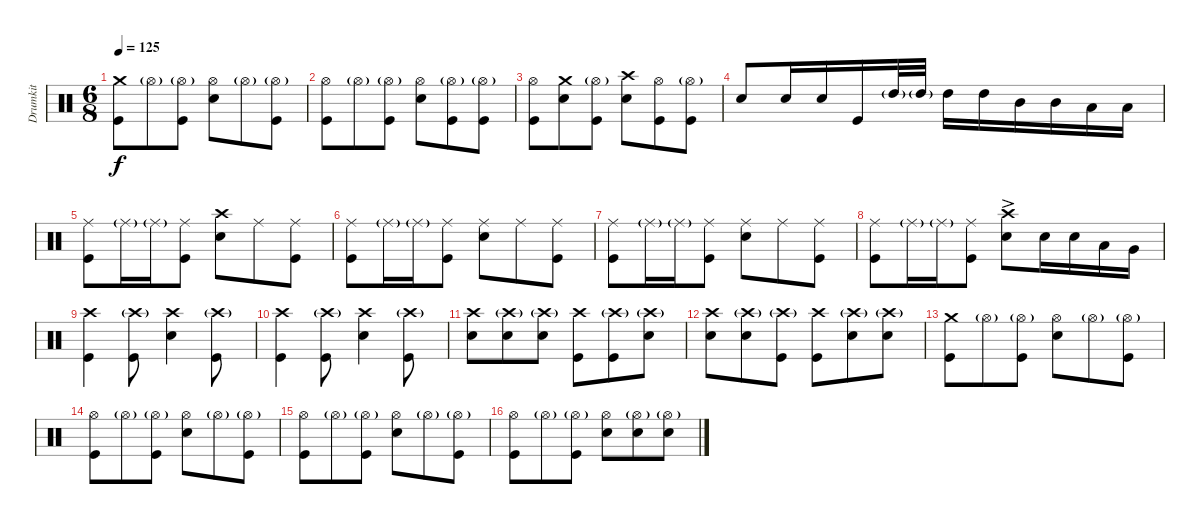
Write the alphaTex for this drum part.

\track ("Drumkit" "Drumkit") {instrument percussion}
\staff {score}
\articulation defaults
\ts (6 8)
\tempo 125
\clef neutral
\ks c
("Kick (hit)" "Crash medium (hit)").8{dy f} "Hi-Hat (open)"{g}.8 ("Kick (hit)" "Hi-Hat (open)"{g}).8 ("Snare (hit) 2" "Hi-Hat (open)").8 "Hi-Hat (open)"{g}.8 ("Hi-Hat (open)"{g} "Kick (hit)").8 |
("Kick (hit)" "Hi-Hat (open)").8 "Hi-Hat (open)"{g}.8 ("Kick (hit)" "Hi-Hat (open)"{g}).8 ("Snare (hit) 2" "Hi-Hat (open)").8 ("Hi-Hat (open)"{g} "Kick (hit)").8 ("Hi-Hat (open)"{g} "Kick (hit)").8 |
("Kick (hit)" "Hi-Hat (open)").8 ("Snare (hit) 2" "Crash medium (hit)").8 ("Kick (hit)" "Hi-Hat (open)"{g}).8 ("Snare (hit) 2" "Crash high (hit)").8 ("Kick (hit)" "Hi-Hat (open)").8 ("Hi-Hat (open)"{g} "Kick (hit)").8 |
"Snare (hit) 2".8 "Snare (hit) 2".16 "Snare (hit) 2".16 "Kick (hit)".16 "High Tom (hit)"{g}.32 "High Tom (hit)"{g}.32 "High Tom (hit)".16 "High Tom (hit)".16 "Mid Tom (hit)".16 "Mid Tom (hit)".16 "Low Tom (hit)".16 "Low Tom (hit)".16 |
("Kick (hit)" "Ride (middle)").8 "Ride (middle)"{g}.16 "Ride (middle)"{g}.16 ("Kick (hit)" "Ride (middle)").8 ("Snare (hit) 2" "Crash high (hit)").8 "Ride (middle)".8 ("Kick (hit)" "Ride (middle)").8 |
("Kick (hit)" "Ride (middle)").8 "Ride (middle)"{g}.16 "Ride (middle)"{g}.16 ("Kick (hit)" "Ride (middle)").8 ("Snare (hit) 2" "Ride (middle)").8 "Ride (middle)".8 ("Kick (hit)" "Ride (middle)").8 |
("Kick (hit)" "Ride (middle)").8 "Ride (middle)"{g}.16 "Ride (middle)"{g}.16 ("Kick (hit)" "Ride (middle)").8 ("Snare (hit) 2" "Ride (middle)").8 "Ride (middle)".8 ("Kick (hit)" "Ride (middle)").8 |
("Kick (hit)" "Ride (middle)").8 "Ride (middle)"{g}.16 "Ride (middle)"{g}.16 ("Kick (hit)" "Ride (middle)").8 ("Snare (hit) 2" "Crash high (hit)"{ac}).8 "Snare (hit) 2".16 "Snare (hit) 2".16 "Low Tom (hit)".16 "Very Low Tom (hit)".16 |
("Kick (hit)" "Crash high (hit)").4 ("Kick (hit)" "Crash high (hit)"{g}).8 ("Snare (hit) 2" "Crash high (hit)").4 ("Kick (hit)" "Crash high (hit)"{g}).8 |
("Kick (hit)" "Crash high (hit)").4 ("Kick (hit)" "Crash high (hit)"{g}).8 ("Snare (hit) 2" "Crash high (hit)").4 ("Kick (hit)" "Crash high (hit)"{g}).8 |
("Snare (hit) 2" "Crash high (hit)").8 ("Snare (hit) 2" "Crash high (hit)"{g}).8 ("Snare (hit) 2" "Crash high (hit)"{g}).8 ("Crash high (hit)" "Kick (hit)").8 ("Crash high (hit)"{g} "Kick (hit)").8 ("Snare (hit) 2" "Crash high (hit)"{g}).8 |
("Snare (hit) 2" "Crash high (hit)").8 ("Snare (hit) 2" "Crash high (hit)"{g}).8 ("Kick (hit)" "Crash high (hit)"{g}).8 ("Kick (hit)" "Crash high (hit)").8 ("Snare (hit) 2" "Crash high (hit)"{g}).8 ("Snare (hit) 2" "Crash high (hit)"{g}).8 |
("Kick (hit)" "Crash medium (hit)").8 "Hi-Hat (open)"{g}.8 ("Kick (hit)" "Hi-Hat (open)"{g}).8 ("Snare (hit) 2" "Hi-Hat (open)").8 "Hi-Hat (open)"{g}.8 ("Hi-Hat (open)"{g} "Kick (hit)").8 |
("Kick (hit)" "Hi-Hat (open)").8 "Hi-Hat (open)"{g}.8 ("Kick (hit)" "Hi-Hat (open)"{g}).8 ("Snare (hit) 2" "Hi-Hat (open)").8 "Hi-Hat (open)"{g}.8 ("Hi-Hat (open)"{g} "Kick (hit)").8 |
("Kick (hit)" "Hi-Hat (open)").8 "Hi-Hat (open)"{g}.8 ("Kick (hit)" "Hi-Hat (open)"{g}).8 ("Snare (hit) 2" "Hi-Hat (open)").8 "Hi-Hat (open)"{g}.8 ("Hi-Hat (open)"{g} "Kick (hit)").8 |
("Kick (hit)" "Hi-Hat (open)").8 "Hi-Hat (open)"{g}.8 ("Kick (hit)" "Hi-Hat (open)"{g}).8 ("Snare (hit) 2" "Hi-Hat (open)").8 ("Hi-Hat (open)"{g} "Snare (hit) 2").8 ("Hi-Hat (open)"{g} "Snare (hit) 2").8
